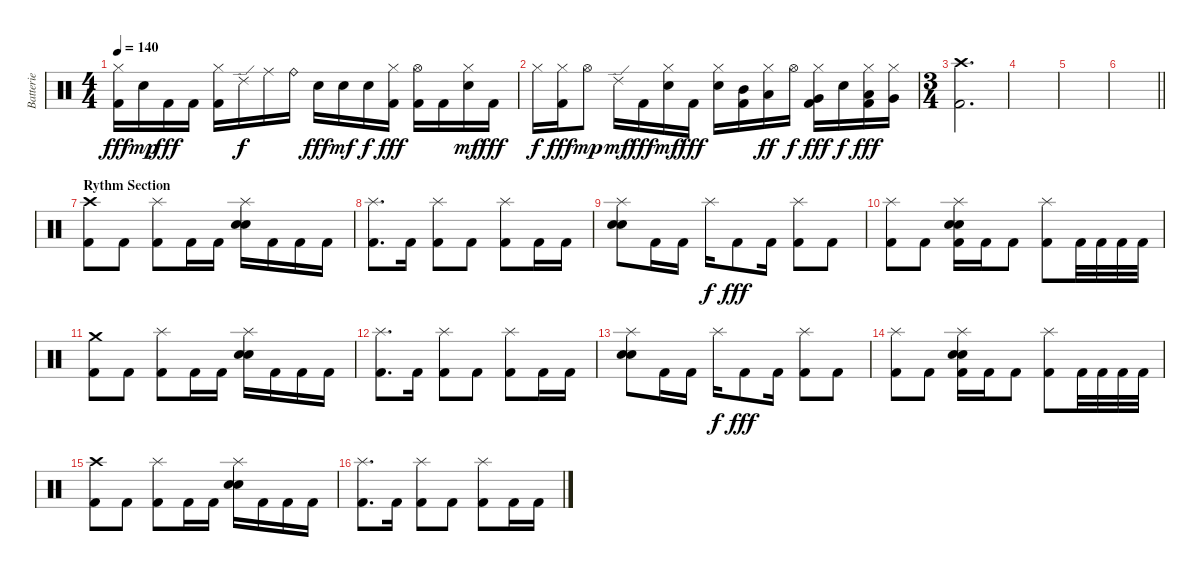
\track ("Batterie" "Batterie") {instrument percussion}
\staff {score}
\articulation defaults
\ts (4 4)
\tempo 140
\clef neutral
\ks c
("Hi-Hat (closed)" "Kick (hit) 2").16{dy fff} "Electric Snare (hit)".16{dy mp} "Kick (hit) 2".16{dy fff} "Kick (hit) 2".16 ("Hi-Hat (closed)" "Kick (hit) 2").16 "Ride (edge) 2".16{dy f} "Ride (middle)".16 "Ride (bell)".16 "Electric Snare (hit)".16{dy fff} "Electric Snare (hit)".16{dy mf} "Electric Snare (hit)".16{dy f} ("Hi-Hat (closed)" "Kick (hit) 2").16{dy fff} ("Hi-Hat (open)" "Kick (hit) 2").16 "Kick (hit) 2".16 ("Hi-Hat (closed)" "Electric Snare (hit)").16{dy mf} "Kick (hit) 2".16{dy fff} |
"Hi-Hat (closed)".16{dy f} ("Hi-Hat (closed)" "Kick (hit) 2").16{dy fff} "Hi-Hat (open)".8{dy mp} "Ride (edge) 2".16{dy mf} "Kick (hit) 2".16{dy fff} ("Hi-Hat (closed)" "Electric Snare (hit)").16{dy mf} "Kick (hit) 2".16{dy fff} ("Hi-Hat (closed)" "Electric Snare (hit)").16 ("Mid Tom (hit)" "Kick (hit) 2").16 ("Hi-Hat (closed)" "Low Tom (hit)").16{dy ff} "Hi-Hat (open)".16{dy f} ("Hi-Hat (closed)" "Very Low Tom (hit)" "Kick (hit) 2").16{dy fff} "Electric Snare (hit)".16{dy f} ("Hi-Hat (closed)" "Low Floor Tom (hit)" "Kick (hit) 2").16{dy fff} ("Hi-Hat (closed)" "Very Low Tom (hit)").16 |
\ts (3 4)
("Crash high (hit)" "Kick (hit) 2").2{d volume 13} |
|
|
\barLineRight lightlight
|
\section ("" "Rythm Section")
("Crash high (hit)" "Kick (hit) 2").8 "Kick (hit) 2".8 ("Splash (hit)" "Kick (hit) 2").8 "Kick (hit) 2".16 "Kick (hit) 2".16 ("Splash (hit)" "Electric Snare (hit)" "Electric Snare (hit)").16 "Kick (hit) 2".16 "Kick (hit) 2".16 "Kick (hit) 2".16 |
("Splash (hit)" "Kick (hit) 2").8{d} "Kick (hit) 2".16 ("Splash (hit)" "Kick (hit) 2").8 "Kick (hit) 2".8 ("Splash (hit)" "Kick (hit) 2").8 "Kick (hit) 2".16 "Kick (hit) 2".16 |
("Splash (hit)" "Electric Snare (hit)" "Electric Snare (hit)").8 "Kick (hit) 2".16 "Kick (hit) 2".16 "Splash (hit)".16{dy f} "Kick (hit) 2".8{dy fff} "Kick (hit) 2".16 ("Splash (hit)" "Kick (hit) 2").8 "Kick (hit) 2".8 |
("Splash (hit)" "Kick (hit) 2").8 "Kick (hit) 2".8 ("Splash (hit)" "Electric Snare (hit)" "Electric Snare (hit)" "Kick (hit) 2").16 "Kick (hit) 2".16 "Kick (hit) 2".8 ("Splash (hit)" "Kick (hit) 2").8 "Kick (hit) 2".32 "Kick (hit) 2".32 "Kick (hit) 2".32 "Kick (hit) 2".32 |
("Crash medium (hit)" "Kick (hit) 2").8 "Kick (hit) 2".8 ("Splash (hit)" "Kick (hit) 2").8 "Kick (hit) 2".16 "Kick (hit) 2".16 ("Splash (hit)" "Electric Snare (hit)" "Electric Snare (hit)").16 "Kick (hit) 2".16 "Kick (hit) 2".16 "Kick (hit) 2".16 |
("Splash (hit)" "Kick (hit) 2").8{d} "Kick (hit) 2".16 ("Splash (hit)" "Kick (hit) 2").8 "Kick (hit) 2".8 ("Splash (hit)" "Kick (hit) 2").8 "Kick (hit) 2".16 "Kick (hit) 2".16 |
("Splash (hit)" "Electric Snare (hit)" "Electric Snare (hit)").8 "Kick (hit) 2".16 "Kick (hit) 2".16 "Splash (hit)".16{dy f} "Kick (hit) 2".8{dy fff} "Kick (hit) 2".16 ("Splash (hit)" "Kick (hit) 2").8 "Kick (hit) 2".8 |
("Splash (hit)" "Kick (hit) 2").8 "Kick (hit) 2".8 ("Splash (hit)" "Electric Snare (hit)" "Electric Snare (hit)" "Kick (hit) 2").16 "Kick (hit) 2".16 "Kick (hit) 2".8 ("Splash (hit)" "Kick (hit) 2").8 "Kick (hit) 2".32 "Kick (hit) 2".32 "Kick (hit) 2".32 "Kick (hit) 2".32 |
("Crash high (hit)" "Kick (hit) 2").8 "Kick (hit) 2".8 ("Splash (hit)" "Kick (hit) 2").8 "Kick (hit) 2".16 "Kick (hit) 2".16 ("Splash (hit)" "Electric Snare (hit)" "Electric Snare (hit)").16 "Kick (hit) 2".16 "Kick (hit) 2".16 "Kick (hit) 2".16 |
("Splash (hit)" "Kick (hit) 2").8{d} "Kick (hit) 2".16 ("Splash (hit)" "Kick (hit) 2").8 "Kick (hit) 2".8 ("Splash (hit)" "Kick (hit) 2").8 "Kick (hit) 2".16 "Kick (hit) 2".16
